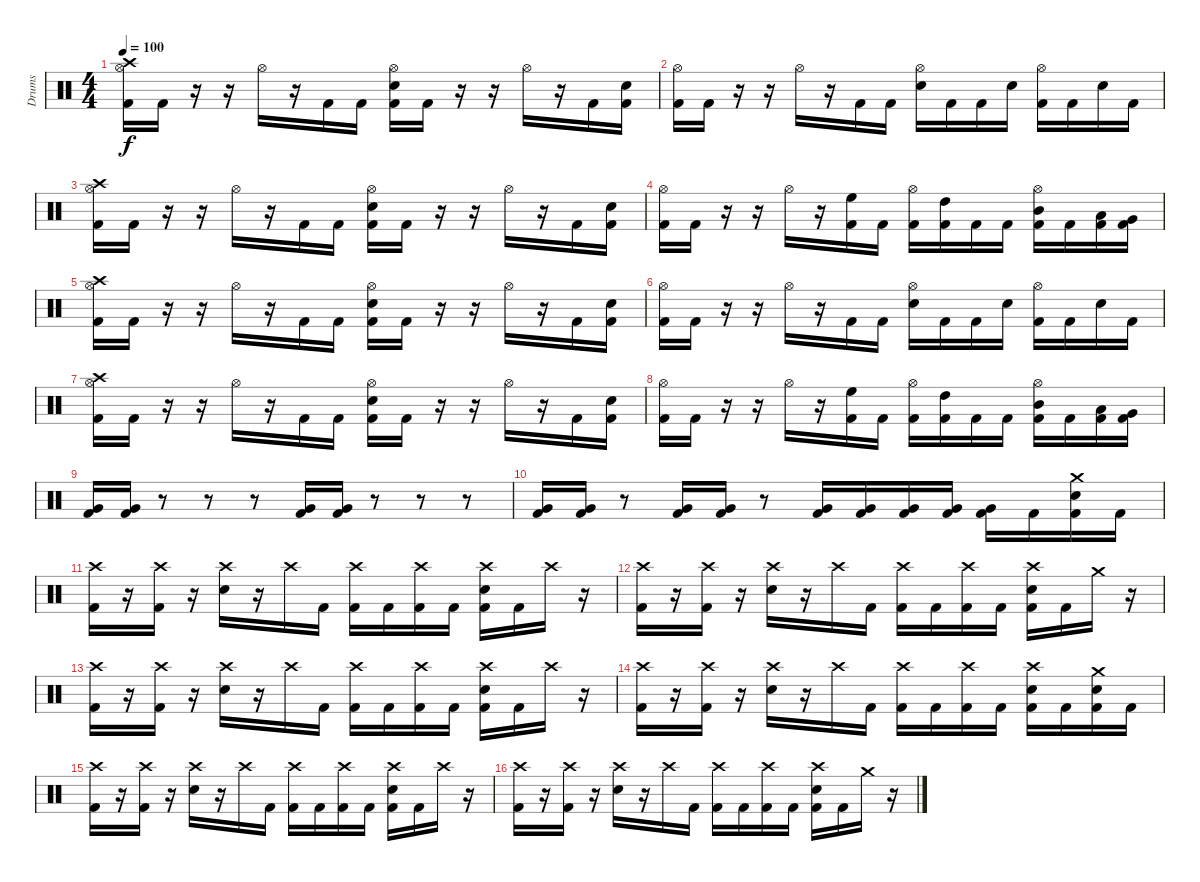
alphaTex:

\track ("Drums" "Drums") {instrument percussion}
\staff {score}
\articulation defaults
\ts (4 4)
\tempo 100
\clef neutral
\ks c
("Crash high (hit)" "Hi-Hat (open)" "Kick (hit) 2").16{dy f} "Kick (hit) 2".16 r.16 r.16 "Hi-Hat (open)".16 r.16 "Kick (hit) 2".16 "Kick (hit) 2".16 ("Hi-Hat (open)" "Snare (hit) 2" "Kick (hit) 2").16 "Kick (hit) 2".16 r.16 r.16 "Hi-Hat (open)".16 r.16 "Kick (hit) 2".16 ("Snare (hit) 2" "Kick (hit) 2").16 |
("Hi-Hat (open)" "Kick (hit) 2").16 "Kick (hit) 2".16 r.16 r.16 "Hi-Hat (open)".16 r.16 "Kick (hit) 2".16 "Kick (hit) 2".16 ("Hi-Hat (open)" "Snare (hit) 2").16 "Kick (hit) 2".16 "Kick (hit) 2".16 "Snare (hit) 2".16 ("Hi-Hat (open)" "Kick (hit) 2").16 "Kick (hit) 2".16 "Snare (hit) 2".16 "Kick (hit) 2".16 |
("Crash high (hit)" "Hi-Hat (open)" "Kick (hit) 2").16 "Kick (hit) 2".16 r.16 r.16 "Hi-Hat (open)".16 r.16 "Kick (hit) 2".16 "Kick (hit) 2".16 ("Hi-Hat (open)" "Snare (hit) 2" "Kick (hit) 2").16 "Kick (hit) 2".16 r.16 r.16 "Hi-Hat (open)".16 r.16 "Kick (hit) 2".16 ("Snare (hit) 2" "Kick (hit) 2").16 |
("Hi-Hat (open)" "Kick (hit) 2").16 "Kick (hit) 2".16 r.16 r.16 "Hi-Hat (open)".16 r.16 ("High Floor Tom (hit)" "Kick (hit) 2").16 "Kick (hit) 2".16 ("Hi-Hat (open)" "Kick (hit) 2").16 ("High Tom (hit)" "Kick (hit) 2").16 "Kick (hit) 2".16 "Kick (hit) 2".16 ("Hi-Hat (open)" "Mid Tom (hit)" "Kick (hit) 2").16 "Kick (hit) 2".16 ("Low Tom (hit)" "Kick (hit) 2").16 ("Very Low Tom (hit)" "Kick (hit) 2").16 |
("Crash high (hit)" "Hi-Hat (open)" "Kick (hit) 2").16 "Kick (hit) 2".16 r.16 r.16 "Hi-Hat (open)".16 r.16 "Kick (hit) 2".16 "Kick (hit) 2".16 ("Hi-Hat (open)" "Snare (hit) 2" "Kick (hit) 2").16 "Kick (hit) 2".16 r.16 r.16 "Hi-Hat (open)".16 r.16 "Kick (hit) 2".16 ("Snare (hit) 2" "Kick (hit) 2").16 |
("Hi-Hat (open)" "Kick (hit) 2").16 "Kick (hit) 2".16 r.16 r.16 "Hi-Hat (open)".16 r.16 "Kick (hit) 2".16 "Kick (hit) 2".16 ("Hi-Hat (open)" "Snare (hit) 2").16 "Kick (hit) 2".16 "Kick (hit) 2".16 "Snare (hit) 2".16 ("Hi-Hat (open)" "Kick (hit) 2").16 "Kick (hit) 2".16 "Snare (hit) 2".16 "Kick (hit) 2".16 |
("Crash high (hit)" "Hi-Hat (open)" "Kick (hit) 2").16 "Kick (hit) 2".16 r.16 r.16 "Hi-Hat (open)".16 r.16 "Kick (hit) 2".16 "Kick (hit) 2".16 ("Hi-Hat (open)" "Snare (hit) 2" "Kick (hit) 2").16 "Kick (hit) 2".16 r.16 r.16 "Hi-Hat (open)".16 r.16 "Kick (hit) 2".16 ("Snare (hit) 2" "Kick (hit) 2").16 |
("Hi-Hat (open)" "Kick (hit) 2").16 "Kick (hit) 2".16 r.16 r.16 "Hi-Hat (open)".16 r.16 ("High Floor Tom (hit)" "Kick (hit) 2").16 "Kick (hit) 2".16 ("Hi-Hat (open)" "Kick (hit) 2").16 ("High Tom (hit)" "Kick (hit) 2").16 "Kick (hit) 2".16 "Kick (hit) 2".16 ("Hi-Hat (open)" "Mid Tom (hit)" "Kick (hit) 2").16 "Kick (hit) 2".16 ("Low Tom (hit)" "Kick (hit) 2").16 ("Very Low Tom (hit)" "Kick (hit) 2").16 |
("Very Low Tom (hit)" "Kick (hit) 2").16 ("Very Low Tom (hit)" "Kick (hit) 2").16 r.8 r.8 r.8 ("Very Low Tom (hit)" "Kick (hit) 2").16 ("Very Low Tom (hit)" "Kick (hit) 2").16 r.8 r.8 r.8 |
("Very Low Tom (hit)" "Kick (hit) 2").16 ("Very Low Tom (hit)" "Kick (hit) 2").16 r.8 ("Very Low Tom (hit)" "Kick (hit) 2").16 ("Very Low Tom (hit)" "Kick (hit) 2").16 r.8 ("Very Low Tom (hit)" "Kick (hit) 2").16 ("Very Low Tom (hit)" "Kick (hit) 2").16 ("Very Low Tom (hit)" "Kick (hit) 2").16 ("Very Low Tom (hit)" "Kick (hit) 2").16 ("Very Low Tom (hit)" "Kick (hit) 2").16 "Kick (hit) 2".16 ("Crash medium (hit)" "Snare (hit) 2" "Kick (hit) 2").16 "Kick (hit) 2".16 |
("Crash high (hit)" "Kick (hit) 2").16 r.16 ("Crash high (hit)" "Kick (hit) 2").16 r.16 ("Crash high (hit)" "Snare (hit) 2").16 r.16 "Crash high (hit)".16 "Kick (hit) 2".16 ("Crash high (hit)" "Kick (hit) 2").16 "Kick (hit) 2".16 ("Crash high (hit)" "Kick (hit) 2").16 "Kick (hit) 2".16 ("Crash high (hit)" "Snare (hit) 2" "Kick (hit) 2").16 "Kick (hit) 2".16 "Crash high (hit)".16 r.16 |
("Crash high (hit)" "Kick (hit) 2").16 r.16 ("Crash high (hit)" "Kick (hit) 2").16 r.16 ("Crash high (hit)" "Snare (hit) 2").16 r.16 "Crash high (hit)".16 "Kick (hit) 2".16 ("Crash high (hit)" "Kick (hit) 2").16 "Kick (hit) 2".16 ("Crash high (hit)" "Kick (hit) 2").16 "Kick (hit) 2".16 ("Crash high (hit)" "Snare (hit) 2" "Kick (hit) 2").16 "Kick (hit) 2".16 "Crash medium (hit)".16 r.16 |
("Crash high (hit)" "Kick (hit) 2").16 r.16 ("Crash high (hit)" "Kick (hit) 2").16 r.16 ("Crash high (hit)" "Snare (hit) 2").16 r.16 "Crash high (hit)".16 "Kick (hit) 2".16 ("Crash high (hit)" "Kick (hit) 2").16 "Kick (hit) 2".16 ("Crash high (hit)" "Kick (hit) 2").16 "Kick (hit) 2".16 ("Crash high (hit)" "Snare (hit) 2" "Kick (hit) 2").16 "Kick (hit) 2".16 "Crash high (hit)".16 r.16 |
("Crash high (hit)" "Kick (hit) 2").16 r.16 ("Crash high (hit)" "Kick (hit) 2").16 r.16 ("Crash high (hit)" "Snare (hit) 2").16 r.16 "Crash high (hit)".16 "Kick (hit) 2".16 ("Crash high (hit)" "Kick (hit) 2").16 "Kick (hit) 2".16 ("Crash high (hit)" "Kick (hit) 2").16 "Kick (hit) 2".16 ("Crash high (hit)" "Snare (hit) 2" "Kick (hit) 2").16 "Kick (hit) 2".16 ("Crash medium (hit)" "Snare (hit) 2" "Kick (hit) 2").16 "Kick (hit) 2".16 |
("Crash high (hit)" "Kick (hit) 2").16 r.16 ("Crash high (hit)" "Kick (hit) 2").16 r.16 ("Crash high (hit)" "Snare (hit) 2").16 r.16 "Crash high (hit)".16 "Kick (hit) 2".16 ("Crash high (hit)" "Kick (hit) 2").16 "Kick (hit) 2".16 ("Crash high (hit)" "Kick (hit) 2").16 "Kick (hit) 2".16 ("Crash high (hit)" "Snare (hit) 2" "Kick (hit) 2").16 "Kick (hit) 2".16 "Crash high (hit)".16 r.16 |
("Crash high (hit)" "Kick (hit) 2").16 r.16 ("Crash high (hit)" "Kick (hit) 2").16 r.16 ("Crash high (hit)" "Snare (hit) 2").16 r.16 "Crash high (hit)".16 "Kick (hit) 2".16 ("Crash high (hit)" "Kick (hit) 2").16 "Kick (hit) 2".16 ("Crash high (hit)" "Kick (hit) 2").16 "Kick (hit) 2".16 ("Crash high (hit)" "Snare (hit) 2" "Kick (hit) 2").16 "Kick (hit) 2".16 "Crash medium (hit)".16 r.16
